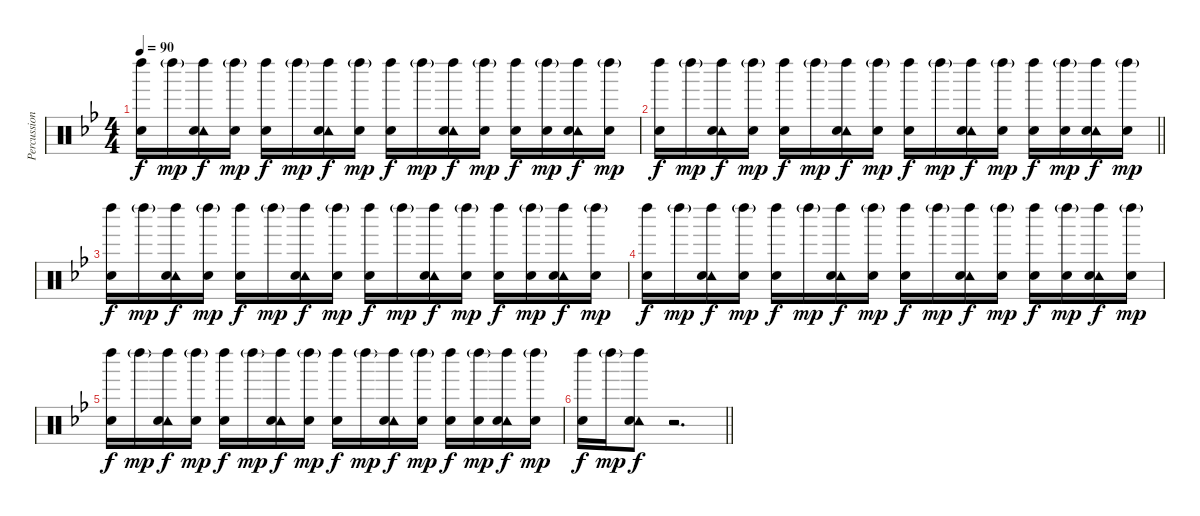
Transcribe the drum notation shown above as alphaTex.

\track ("Percussion" "Percussion") {instrument percussion}
\staff {score}
\articulation defaults
\ts (4 4)
\tempo 90
\clef neutral
\ks bb
("Left Maraca (hit)" "Snare (hit) 2").16{dy f} "Left Maraca (hit)"{g}.16{dy mp} ("Left Maraca (hit)" "Tambourine (hit)" "Snare (hit) 2").16{dy f} ("Left Maraca (hit)"{g} "Snare (hit) 2").16{dy mp} ("Left Maraca (hit)" "Snare (hit) 2").16{dy f} "Left Maraca (hit)"{g}.16{dy mp} ("Left Maraca (hit)" "Tambourine (hit)" "Snare (hit) 2").16{dy f} ("Left Maraca (hit)"{g} "Snare (hit) 2").16{dy mp} ("Left Maraca (hit)" "Snare (hit) 2").16{dy f} "Left Maraca (hit)"{g}.16{dy mp} ("Left Maraca (hit)" "Tambourine (hit)" "Snare (hit) 2").16{dy f} ("Left Maraca (hit)"{g} "Snare (hit) 2").16{dy mp} ("Left Maraca (hit)" "Snare (hit) 2").16{dy f} ("Left Maraca (hit)"{g} "Snare (hit) 2").16{dy mp} ("Left Maraca (hit)" "Tambourine (hit)" "Snare (hit) 2").16{dy f} ("Left Maraca (hit)"{g} "Snare (hit) 2").16{dy mp} |
\barLineRight lightlight
("Left Maraca (hit)" "Snare (hit) 2").16{dy f} "Left Maraca (hit)"{g}.16{dy mp} ("Left Maraca (hit)" "Tambourine (hit)" "Snare (hit) 2").16{dy f} ("Left Maraca (hit)"{g} "Snare (hit) 2").16{dy mp} ("Left Maraca (hit)" "Snare (hit) 2").16{dy f} "Left Maraca (hit)"{g}.16{dy mp} ("Left Maraca (hit)" "Tambourine (hit)" "Snare (hit) 2").16{dy f} ("Left Maraca (hit)"{g} "Snare (hit) 2").16{dy mp} ("Left Maraca (hit)" "Snare (hit) 2").16{dy f} "Left Maraca (hit)"{g}.16{dy mp} ("Left Maraca (hit)" "Tambourine (hit)" "Snare (hit) 2").16{dy f} ("Left Maraca (hit)"{g} "Snare (hit) 2").16{dy mp} ("Left Maraca (hit)" "Snare (hit) 2").16{dy f} ("Left Maraca (hit)"{g} "Snare (hit) 2").16{dy mp} ("Left Maraca (hit)" "Tambourine (hit)" "Snare (hit) 2").16{dy f} ("Left Maraca (hit)"{g} "Snare (hit) 2").16{dy mp} |
("Left Maraca (hit)" "Snare (hit) 2").16{dy f} "Left Maraca (hit)"{g}.16{dy mp} ("Left Maraca (hit)" "Tambourine (hit)" "Snare (hit) 2").16{dy f} ("Left Maraca (hit)"{g} "Snare (hit) 2").16{dy mp} ("Left Maraca (hit)" "Snare (hit) 2").16{dy f} "Left Maraca (hit)"{g}.16{dy mp} ("Left Maraca (hit)" "Tambourine (hit)" "Snare (hit) 2").16{dy f} ("Left Maraca (hit)"{g} "Snare (hit) 2").16{dy mp} ("Left Maraca (hit)" "Snare (hit) 2").16{dy f} "Left Maraca (hit)"{g}.16{dy mp} ("Left Maraca (hit)" "Tambourine (hit)" "Snare (hit) 2").16{dy f} ("Left Maraca (hit)"{g} "Snare (hit) 2").16{dy mp} ("Left Maraca (hit)" "Snare (hit) 2").16{dy f} ("Left Maraca (hit)"{g} "Snare (hit) 2").16{dy mp} ("Left Maraca (hit)" "Tambourine (hit)" "Snare (hit) 2").16{dy f} ("Left Maraca (hit)"{g} "Snare (hit) 2").16{dy mp} |
("Left Maraca (hit)" "Snare (hit) 2").16{dy f} "Left Maraca (hit)"{g}.16{dy mp} ("Left Maraca (hit)" "Tambourine (hit)" "Snare (hit) 2").16{dy f} ("Left Maraca (hit)"{g} "Snare (hit) 2").16{dy mp} ("Left Maraca (hit)" "Snare (hit) 2").16{dy f} "Left Maraca (hit)"{g}.16{dy mp} ("Left Maraca (hit)" "Tambourine (hit)" "Snare (hit) 2").16{dy f} ("Left Maraca (hit)"{g} "Snare (hit) 2").16{dy mp} ("Left Maraca (hit)" "Snare (hit) 2").16{dy f} "Left Maraca (hit)"{g}.16{dy mp} ("Left Maraca (hit)" "Tambourine (hit)" "Snare (hit) 2").16{dy f} ("Left Maraca (hit)"{g} "Snare (hit) 2").16{dy mp} ("Left Maraca (hit)" "Snare (hit) 2").16{dy f} ("Left Maraca (hit)"{g} "Snare (hit) 2").16{dy mp} ("Left Maraca (hit)" "Tambourine (hit)" "Snare (hit) 2").16{dy f} ("Left Maraca (hit)"{g} "Snare (hit) 2").16{dy mp} |
("Left Maraca (hit)" "Snare (hit) 2").16{dy f} "Left Maraca (hit)"{g}.16{dy mp} ("Left Maraca (hit)" "Tambourine (hit)" "Snare (hit) 2").16{dy f} ("Left Maraca (hit)"{g} "Snare (hit) 2").16{dy mp} ("Left Maraca (hit)" "Snare (hit) 2").16{dy f} "Left Maraca (hit)"{g}.16{dy mp} ("Left Maraca (hit)" "Tambourine (hit)" "Snare (hit) 2").16{dy f} ("Left Maraca (hit)"{g} "Snare (hit) 2").16{dy mp} ("Left Maraca (hit)" "Snare (hit) 2").16{dy f} "Left Maraca (hit)"{g}.16{dy mp} ("Left Maraca (hit)" "Tambourine (hit)" "Snare (hit) 2").16{dy f} ("Left Maraca (hit)"{g} "Snare (hit) 2").16{dy mp} ("Left Maraca (hit)" "Snare (hit) 2").16{dy f} ("Left Maraca (hit)"{g} "Snare (hit) 2").16{dy mp} ("Left Maraca (hit)" "Tambourine (hit)" "Snare (hit) 2").16{dy f} ("Left Maraca (hit)"{g} "Snare (hit) 2").16{dy mp} |
\barLineRight lightlight
("Left Maraca (hit)" "Snare (hit) 2").16{dy f} "Left Maraca (hit)"{g}.16{dy mp} ("Left Maraca (hit)" "Tambourine (hit)" "Snare (hit) 2").8{dy f} r.2{d}
